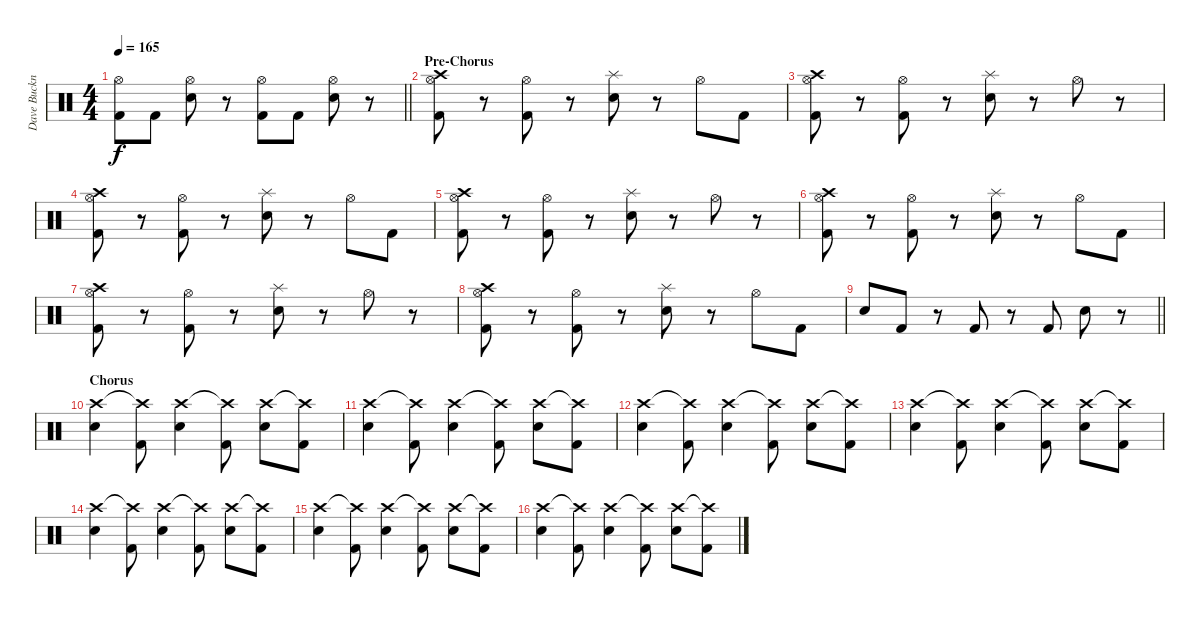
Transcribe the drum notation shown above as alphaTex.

\track ("Dave Buckner " "Dave Buckn") {instrument percussion}
\staff {score}
\articulation defaults
\ts (4 4)
\tempo 165
\clef neutral
\barLineRight lightlight
\ks c
("Hi-Hat (open)" "Kick (hit) 2").8{dy f} "Kick (hit) 2".8 ("Hi-Hat (open)" "Snare (hit) 2").8 r.8 ("Hi-Hat (open)" "Kick (hit) 2").8 "Kick (hit) 2".8 ("Hi-Hat (open)" "Snare (hit) 2").8 r.8 |
\section ("" "Pre-Chorus")
("Crash high (hit)" "Hi-Hat (open)" "Kick (hit) 2").8 r.8 ("Hi-Hat (open)" "Kick (hit) 2").8 r.8 ("Splash (hit)" "Snare (hit) 2").8 r.8 "Hi-Hat (open)".8 "Kick (hit) 2".8 |
("Crash high (hit)" "Hi-Hat (open)" "Kick (hit) 2").8 r.8 ("Hi-Hat (open)" "Kick (hit) 2").8 r.8 ("Splash (hit)" "Snare (hit) 2").8 r.8 "Hi-Hat (open)".8 r.8 |
("Crash high (hit)" "Hi-Hat (open)" "Kick (hit) 2").8 r.8 ("Hi-Hat (open)" "Kick (hit) 2").8 r.8 ("Splash (hit)" "Snare (hit) 2").8 r.8 "Hi-Hat (open)".8 "Kick (hit) 2".8 |
("Crash high (hit)" "Hi-Hat (open)" "Kick (hit) 2").8 r.8 ("Hi-Hat (open)" "Kick (hit) 2").8 r.8 ("Splash (hit)" "Snare (hit) 2").8 r.8 "Hi-Hat (open)".8 r.8 |
("Crash high (hit)" "Hi-Hat (open)" "Kick (hit) 2").8 r.8 ("Hi-Hat (open)" "Kick (hit) 2").8 r.8 ("Splash (hit)" "Snare (hit) 2").8 r.8 "Hi-Hat (open)".8 "Kick (hit) 2".8 |
("Crash high (hit)" "Hi-Hat (open)" "Kick (hit) 2").8 r.8 ("Hi-Hat (open)" "Kick (hit) 2").8 r.8 ("Splash (hit)" "Snare (hit) 2").8 r.8 "Hi-Hat (open)".8 r.8 |
("Crash high (hit)" "Hi-Hat (open)" "Kick (hit) 2").8 r.8 ("Hi-Hat (open)" "Kick (hit) 2").8 r.8 ("Splash (hit)" "Snare (hit) 2").8 r.8 "Hi-Hat (open)".8 "Kick (hit) 2".8 |
\barLineRight lightlight "Snare (hit) 2".8 "Kick (hit) 2".8
r.8 "Kick (hit) 2".8 r.8 "Kick (hit) 2".8 "Snare (hit) 2".8 r.8 |
\section ("" "Chorus")
("Crash high (hit)" "Snare (hit) 2").4 ("Crash high (hit)"{t} "Kick (hit) 2").8 ("Crash high (hit)" "Snare (hit) 2").4 ("Crash high (hit)"{t} "Kick (hit) 2").8 ("Crash high (hit)" "Snare (hit) 2").8 ("Crash high (hit)"{t} "Kick (hit) 2").8 |
("Crash high (hit)" "Snare (hit) 2").4 ("Crash high (hit)"{t} "Kick (hit) 2").8 ("Crash high (hit)" "Snare (hit) 2").4 ("Crash high (hit)"{t} "Kick (hit) 2").8 ("Crash high (hit)" "Snare (hit) 2").8 ("Crash high (hit)"{t} "Kick (hit) 2").8 |
("Crash high (hit)" "Snare (hit) 2").4 ("Crash high (hit)"{t} "Kick (hit) 2").8 ("Crash high (hit)" "Snare (hit) 2").4 ("Crash high (hit)"{t} "Kick (hit) 2").8 ("Crash high (hit)" "Snare (hit) 2").8 ("Crash high (hit)"{t} "Kick (hit) 2").8 |
("Crash high (hit)" "Snare (hit) 2").4 ("Crash high (hit)"{t} "Kick (hit) 2").8 ("Crash high (hit)" "Snare (hit) 2").4 ("Crash high (hit)"{t} "Kick (hit) 2").8 ("Crash high (hit)" "Snare (hit) 2").8 ("Crash high (hit)"{t} "Kick (hit) 2").8 |
("Crash high (hit)" "Snare (hit) 2").4 ("Crash high (hit)"{t} "Kick (hit) 2").8 ("Crash high (hit)" "Snare (hit) 2").4 ("Crash high (hit)"{t} "Kick (hit) 2").8 ("Crash high (hit)" "Snare (hit) 2").8 ("Crash high (hit)"{t} "Kick (hit) 2").8 |
("Crash high (hit)" "Snare (hit) 2").4 ("Crash high (hit)"{t} "Kick (hit) 2").8 ("Crash high (hit)" "Snare (hit) 2").4 ("Crash high (hit)"{t} "Kick (hit) 2").8 ("Crash high (hit)" "Snare (hit) 2").8 ("Crash high (hit)"{t} "Kick (hit) 2").8 |
("Crash high (hit)" "Snare (hit) 2").4 ("Crash high (hit)"{t} "Kick (hit) 2").8 ("Crash high (hit)" "Snare (hit) 2").4 ("Crash high (hit)"{t} "Kick (hit) 2").8 ("Crash high (hit)" "Snare (hit) 2").8 ("Crash high (hit)"{t} "Kick (hit) 2").8
